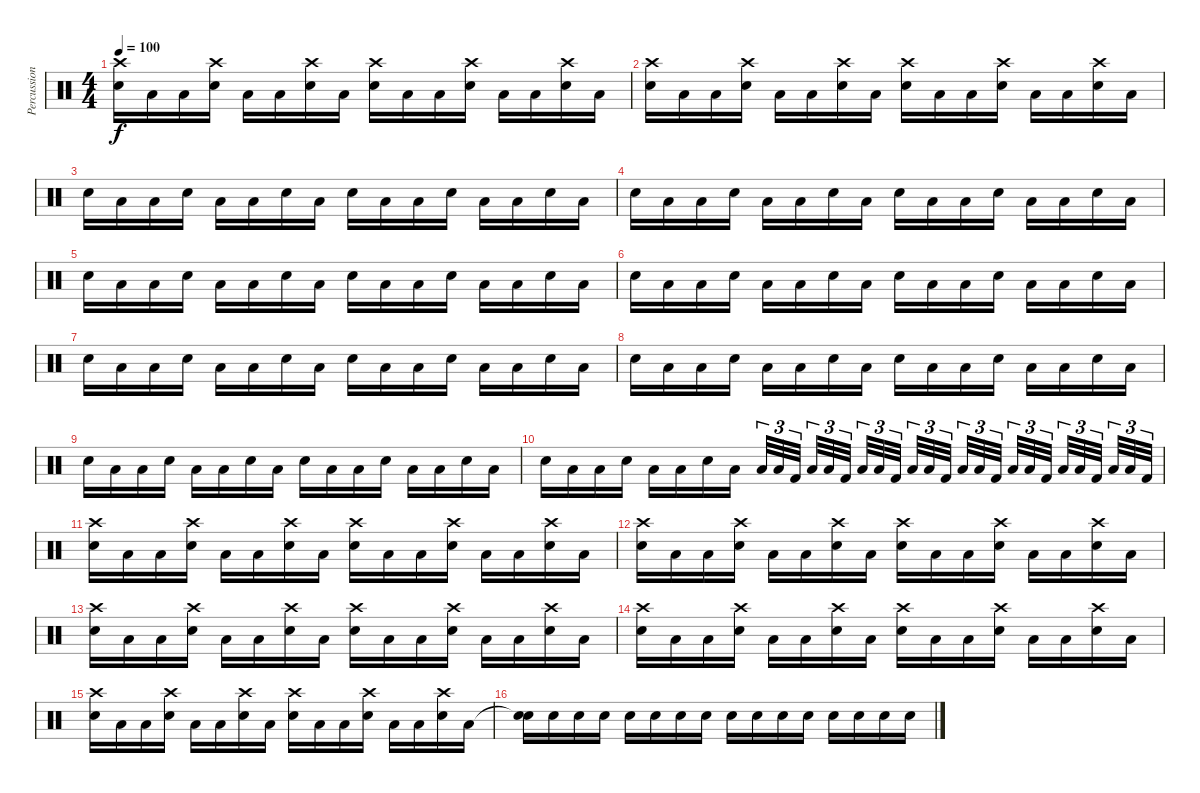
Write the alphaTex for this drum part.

\track ("Percussion" "Percussion") {instrument percussion}
\staff {score}
\articulation defaults
\ts (4 4)
\tempo 100
\clef neutral
\ks c
("Crash high (hit)" "Electric Snare (hit)").16{dy f} "Low Floor Tom (hit)".16 "Low Floor Tom (hit)".16 ("Crash high (hit)" "Electric Snare (hit)").16 "Low Floor Tom (hit)".16 "Low Floor Tom (hit)".16 ("Crash high (hit)" "Electric Snare (hit)").16 "Low Floor Tom (hit)".16 ("Crash high (hit)" "Electric Snare (hit)").16 "Low Floor Tom (hit)".16 "Low Floor Tom (hit)".16 ("Crash high (hit)" "Electric Snare (hit)").16 "Low Floor Tom (hit)".16 "Low Floor Tom (hit)".16 ("Crash high (hit)" "Electric Snare (hit)").16 "Low Floor Tom (hit)".16 |
("Crash high (hit)" "Electric Snare (hit)").16 "Low Floor Tom (hit)".16 "Low Floor Tom (hit)".16 ("Crash high (hit)" "Electric Snare (hit)").16 "Low Floor Tom (hit)".16 "Low Floor Tom (hit)".16 ("Crash high (hit)" "Electric Snare (hit)").16 "Low Floor Tom (hit)".16 ("Crash high (hit)" "Electric Snare (hit)").16 "Low Floor Tom (hit)".16 "Low Floor Tom (hit)".16 ("Crash high (hit)" "Electric Snare (hit)").16 "Low Floor Tom (hit)".16 "Low Floor Tom (hit)".16 ("Crash high (hit)" "Electric Snare (hit)").16 "Low Floor Tom (hit)".16 |
"Electric Snare (hit)".16 "Low Floor Tom (hit)".16 "Low Floor Tom (hit)".16 "Electric Snare (hit)".16 "Low Floor Tom (hit)".16 "Low Floor Tom (hit)".16 "Electric Snare (hit)".16 "Low Floor Tom (hit)".16 "Electric Snare (hit)".16 "Low Floor Tom (hit)".16 "Low Floor Tom (hit)".16 "Electric Snare (hit)".16 "Low Floor Tom (hit)".16 "Low Floor Tom (hit)".16 "Electric Snare (hit)".16 "Low Floor Tom (hit)".16 |
"Electric Snare (hit)".16 "Low Floor Tom (hit)".16 "Low Floor Tom (hit)".16 "Electric Snare (hit)".16 "Low Floor Tom (hit)".16 "Low Floor Tom (hit)".16 "Electric Snare (hit)".16 "Low Floor Tom (hit)".16 "Electric Snare (hit)".16 "Low Floor Tom (hit)".16 "Low Floor Tom (hit)".16 "Electric Snare (hit)".16 "Low Floor Tom (hit)".16 "Low Floor Tom (hit)".16 "Electric Snare (hit)".16 "Low Floor Tom (hit)".16 |
"Electric Snare (hit)".16 "Low Floor Tom (hit)".16 "Low Floor Tom (hit)".16 "Electric Snare (hit)".16 "Low Floor Tom (hit)".16 "Low Floor Tom (hit)".16 "Electric Snare (hit)".16 "Low Floor Tom (hit)".16 "Electric Snare (hit)".16 "Low Floor Tom (hit)".16 "Low Floor Tom (hit)".16 "Electric Snare (hit)".16 "Low Floor Tom (hit)".16 "Low Floor Tom (hit)".16 "Electric Snare (hit)".16 "Low Floor Tom (hit)".16 |
"Electric Snare (hit)".16 "Low Floor Tom (hit)".16 "Low Floor Tom (hit)".16 "Electric Snare (hit)".16 "Low Floor Tom (hit)".16 "Low Floor Tom (hit)".16 "Electric Snare (hit)".16 "Low Floor Tom (hit)".16 "Electric Snare (hit)".16 "Low Floor Tom (hit)".16 "Low Floor Tom (hit)".16 "Electric Snare (hit)".16 "Low Floor Tom (hit)".16 "Low Floor Tom (hit)".16 "Electric Snare (hit)".16 "Low Floor Tom (hit)".16 |
"Electric Snare (hit)".16 "Low Floor Tom (hit)".16 "Low Floor Tom (hit)".16 "Electric Snare (hit)".16 "Low Floor Tom (hit)".16 "Low Floor Tom (hit)".16 "Electric Snare (hit)".16 "Low Floor Tom (hit)".16 "Electric Snare (hit)".16 "Low Floor Tom (hit)".16 "Low Floor Tom (hit)".16 "Electric Snare (hit)".16 "Low Floor Tom (hit)".16 "Low Floor Tom (hit)".16 "Electric Snare (hit)".16 "Low Floor Tom (hit)".16 |
"Electric Snare (hit)".16 "Low Floor Tom (hit)".16 "Low Floor Tom (hit)".16 "Electric Snare (hit)".16 "Low Floor Tom (hit)".16 "Low Floor Tom (hit)".16 "Electric Snare (hit)".16 "Low Floor Tom (hit)".16 "Electric Snare (hit)".16 "Low Floor Tom (hit)".16 "Low Floor Tom (hit)".16 "Electric Snare (hit)".16 "Low Floor Tom (hit)".16 "Low Floor Tom (hit)".16 "Electric Snare (hit)".16 "Low Floor Tom (hit)".16 |
"Electric Snare (hit)".16 "Low Floor Tom (hit)".16 "Low Floor Tom (hit)".16 "Electric Snare (hit)".16 "Low Floor Tom (hit)".16 "Low Floor Tom (hit)".16 "Electric Snare (hit)".16 "Low Floor Tom (hit)".16 "Electric Snare (hit)".16 "Low Floor Tom (hit)".16 "Low Floor Tom (hit)".16 "Electric Snare (hit)".16 "Low Floor Tom (hit)".16 "Low Floor Tom (hit)".16 "Electric Snare (hit)".16 "Low Floor Tom (hit)".16 |
"Electric Snare (hit)".16 "Low Floor Tom (hit)".16 "Low Floor Tom (hit)".16 "Electric Snare (hit)".16 "Low Floor Tom (hit)".16 "Low Floor Tom (hit)".16 "Electric Snare (hit)".16 "Low Floor Tom (hit)".16 "Low Tom (hit)".32{tu (3 2)} "Low Tom (hit)".32{tu (3 2)} "Kick (hit) 2".32{tu (3 2) beam splitsecondary} "Low Tom (hit)".32{tu (3 2)} "Low Tom (hit)".32{tu (3 2)} "Kick (hit) 2".32{tu (3 2) beam splitsecondary} "Low Tom (hit)".32{tu (3 2)} "Low Tom (hit)".32{tu (3 2)} "Kick (hit) 2".32{tu (3 2) beam splitsecondary} "Low Tom (hit)".32{tu (3 2)} "Low Tom (hit)".32{tu (3 2)} "Kick (hit) 2".32{tu (3 2)} "Low Tom (hit)".32{tu (3 2)} "Low Tom (hit)".32{tu (3 2)} "Kick (hit) 2".32{tu (3 2) beam splitsecondary} "Low Tom (hit)".32{tu (3 2)} "Low Tom (hit)".32{tu (3 2)} "Kick (hit) 2".32{tu (3 2) beam splitsecondary} "Low Tom (hit)".32{tu (3 2)} "Low Tom (hit)".32{tu (3 2)} "Kick (hit) 2".32{tu (3 2) beam splitsecondary} "Low Tom (hit)".32{tu (3 2)} "Low Tom (hit)".32{tu (3 2)} "Kick (hit) 2".32{tu (3 2)} |
("Crash high (hit)" "Electric Snare (hit)").16 "Low Floor Tom (hit)".16 "Low Floor Tom (hit)".16 ("Crash high (hit)" "Electric Snare (hit)").16 "Low Floor Tom (hit)".16 "Low Floor Tom (hit)".16 ("Crash high (hit)" "Electric Snare (hit)").16 "Low Floor Tom (hit)".16 ("Crash high (hit)" "Electric Snare (hit)").16 "Low Floor Tom (hit)".16 "Low Floor Tom (hit)".16 ("Crash high (hit)" "Electric Snare (hit)").16 "Low Floor Tom (hit)".16 "Low Floor Tom (hit)".16 ("Crash high (hit)" "Electric Snare (hit)").16 "Low Floor Tom (hit)".16 |
("Crash high (hit)" "Electric Snare (hit)").16 "Low Floor Tom (hit)".16 "Low Floor Tom (hit)".16 ("Crash high (hit)" "Electric Snare (hit)").16 "Low Floor Tom (hit)".16 "Low Floor Tom (hit)".16 ("Crash high (hit)" "Electric Snare (hit)").16 "Low Floor Tom (hit)".16 ("Crash high (hit)" "Electric Snare (hit)").16 "Low Floor Tom (hit)".16 "Low Floor Tom (hit)".16 ("Crash high (hit)" "Electric Snare (hit)").16 "Low Floor Tom (hit)".16 "Low Floor Tom (hit)".16 ("Crash high (hit)" "Electric Snare (hit)").16 "Low Floor Tom (hit)".16 |
("Crash high (hit)" "Electric Snare (hit)").16 "Low Floor Tom (hit)".16 "Low Floor Tom (hit)".16 ("Crash high (hit)" "Electric Snare (hit)").16 "Low Floor Tom (hit)".16 "Low Floor Tom (hit)".16 ("Crash high (hit)" "Electric Snare (hit)").16 "Low Floor Tom (hit)".16 ("Crash high (hit)" "Electric Snare (hit)").16 "Low Floor Tom (hit)".16 "Low Floor Tom (hit)".16 ("Crash high (hit)" "Electric Snare (hit)").16 "Low Floor Tom (hit)".16 "Low Floor Tom (hit)".16 ("Crash high (hit)" "Electric Snare (hit)").16 "Low Floor Tom (hit)".16 |
("Crash high (hit)" "Electric Snare (hit)").16 "Low Floor Tom (hit)".16 "Low Floor Tom (hit)".16 ("Crash high (hit)" "Electric Snare (hit)").16 "Low Floor Tom (hit)".16 "Low Floor Tom (hit)".16 ("Crash high (hit)" "Electric Snare (hit)").16 "Low Floor Tom (hit)".16 ("Crash high (hit)" "Electric Snare (hit)").16 "Low Floor Tom (hit)".16 "Low Floor Tom (hit)".16 ("Crash high (hit)" "Electric Snare (hit)").16 "Low Floor Tom (hit)".16 "Low Floor Tom (hit)".16 ("Crash high (hit)" "Electric Snare (hit)").16 "Low Floor Tom (hit)".16 |
("Crash high (hit)" "Electric Snare (hit)").16 "Low Floor Tom (hit)".16 "Low Floor Tom (hit)".16 ("Crash high (hit)" "Electric Snare (hit)").16 "Low Floor Tom (hit)".16 "Low Floor Tom (hit)".16 ("Crash high (hit)" "Electric Snare (hit)").16 "Low Floor Tom (hit)".16 ("Crash high (hit)" "Electric Snare (hit)").16 "Low Floor Tom (hit)".16 "Low Floor Tom (hit)".16 ("Crash high (hit)" "Electric Snare (hit)").16 "Low Floor Tom (hit)".16 "Low Floor Tom (hit)".16 ("Crash high (hit)" "Electric Snare (hit)").16 "Low Floor Tom (hit)".16 |
("Snare (hit)"{t} "Electric Snare (hit)").16 "Electric Snare (hit)".16 "Electric Snare (hit)".16 "Electric Snare (hit)".16 "Electric Snare (hit)".16 "Electric Snare (hit)".16 "Electric Snare (hit)".16 "Electric Snare (hit)".16 "Electric Snare (hit)".16 "Electric Snare (hit)".16 "Electric Snare (hit)".16 "Electric Snare (hit)".16 "Electric Snare (hit)".16 "Electric Snare (hit)".16 "Electric Snare (hit)".16 "Electric Snare (hit)".16
